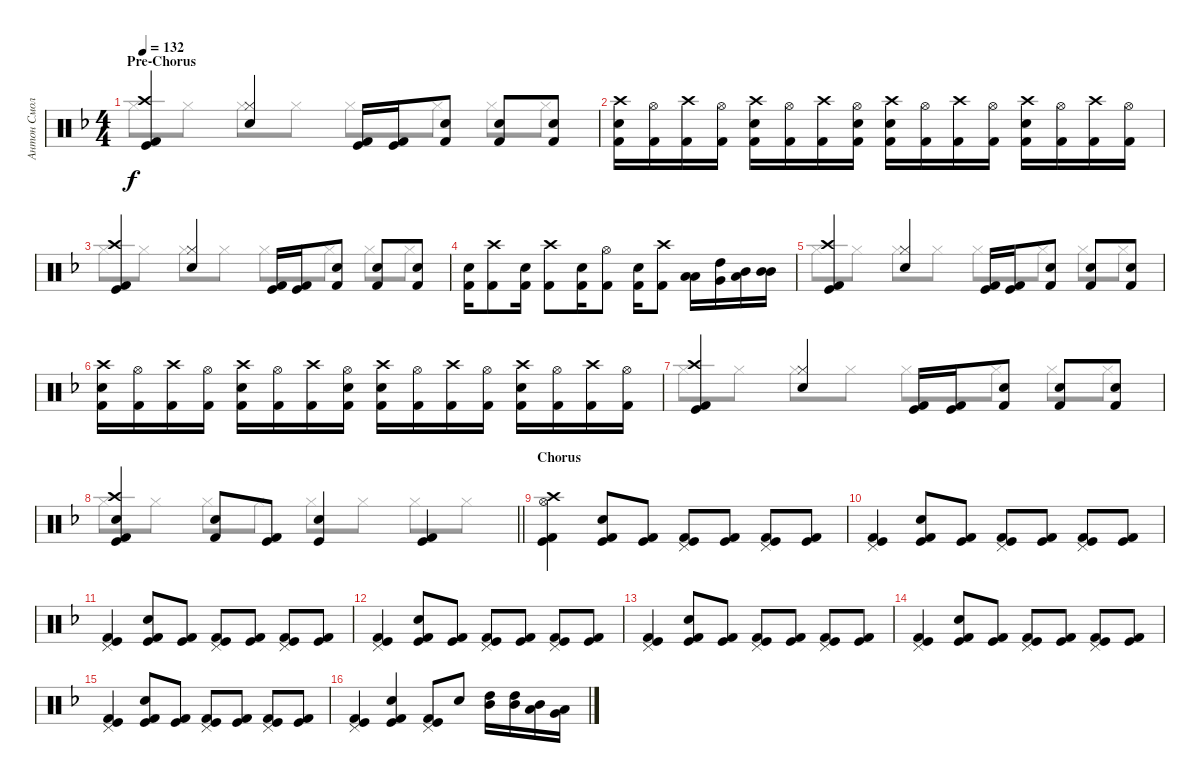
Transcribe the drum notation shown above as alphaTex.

\track ("Антон Смольянин" "Антон Смол") {instrument percussion}
\staff {score}
\articulation defaults
\voice
\ts (4 4)
\section ("" "Pre-Chorus")
\tempo 132
\clef neutral
\ks f
("Kick (hit) 2" "Kick (hit)" "Crash high (hit)").4{dy f} ("Hi-Hat (closed)" "Snare (hit) 2").4 ("Kick (hit) 2" "Kick (hit)").16 ("Kick (hit) 2" "Kick (hit)").16 ("Kick (hit) 2" "Snare (hit) 2").8 ("Kick (hit) 2" "Snare (hit) 2").8 ("Kick (hit) 2" "Snare (hit) 2").8 |
("Kick (hit) 2" "Snare (hit) 2" "Crash high (hit)").16 ("Kick (hit) 2" "Hi-Hat (open)").16 ("Kick (hit) 2" "Crash high (hit)").16 ("Kick (hit) 2" "Hi-Hat (open)").16 ("Kick (hit) 2" "Snare (hit) 2" "Crash high (hit)").16 ("Kick (hit) 2" "Hi-Hat (open)").16 ("Kick (hit) 2" "Crash high (hit)").16 ("Kick (hit) 2" "Snare (hit) 2" "Hi-Hat (open)").16 ("Kick (hit) 2" "Snare (hit) 2" "Crash high (hit)").16 ("Kick (hit) 2" "Hi-Hat (open)").16 ("Kick (hit) 2" "Crash high (hit)").16 ("Kick (hit) 2" "Hi-Hat (open)").16 ("Kick (hit) 2" "Snare (hit) 2" "Crash high (hit)").16 ("Kick (hit) 2" "Hi-Hat (open)").16 ("Kick (hit) 2" "Crash high (hit)").16 ("Kick (hit) 2" "Hi-Hat (open)").16 |
("Kick (hit) 2" "Kick (hit)" "Crash high (hit)").4 ("Hi-Hat (closed)" "Snare (hit) 2").4 ("Kick (hit) 2" "Kick (hit)").16 ("Kick (hit) 2" "Kick (hit)").16 ("Kick (hit) 2" "Snare (hit) 2").8 ("Kick (hit) 2" "Snare (hit) 2").8 ("Kick (hit) 2" "Snare (hit) 2").8 |
("Kick (hit) 2" "Snare (hit) 2").16 ("Kick (hit) 2" "Crash high (hit)").8 ("Kick (hit) 2" "Snare (hit) 2").16 ("Kick (hit) 2" "Crash high (hit)").8 ("Kick (hit) 2" "Snare (hit) 2").16 ("Kick (hit) 2" "Hi-Hat (open)").8 ("Kick (hit) 2" "Snare (hit) 2").16 ("Kick (hit) 2" "Crash high (hit)").8 ("Low Tom (hit)" "Low Floor Tom (hit)").16 ("High Tom (hit)" "Very Low Tom (hit)").16 ("Mid Tom (hit)" "Low Floor Tom (hit)").16 ("Mid Tom (hit)" "Mid Tom (hit)").16 |
("Kick (hit) 2" "Kick (hit)" "Crash high (hit)").4 ("Hi-Hat (closed)" "Snare (hit) 2").4 ("Kick (hit) 2" "Kick (hit)").16 ("Kick (hit) 2" "Kick (hit)").16 ("Kick (hit) 2" "Snare (hit) 2").8 ("Kick (hit) 2" "Snare (hit) 2").8 ("Kick (hit) 2" "Snare (hit) 2").8 |
("Kick (hit) 2" "Snare (hit) 2" "Crash high (hit)").16 ("Kick (hit) 2" "Hi-Hat (open)").16 ("Kick (hit) 2" "Crash high (hit)").16 ("Kick (hit) 2" "Hi-Hat (open)").16 ("Kick (hit) 2" "Snare (hit) 2" "Crash high (hit)").16 ("Kick (hit) 2" "Hi-Hat (open)").16 ("Kick (hit) 2" "Crash high (hit)").16 ("Kick (hit) 2" "Snare (hit) 2" "Hi-Hat (open)").16 ("Kick (hit) 2" "Snare (hit) 2" "Crash high (hit)").16 ("Kick (hit) 2" "Hi-Hat (open)").16 ("Kick (hit) 2" "Crash high (hit)").16 ("Kick (hit) 2" "Hi-Hat (open)").16 ("Kick (hit) 2" "Snare (hit) 2" "Crash high (hit)").16 ("Kick (hit) 2" "Hi-Hat (open)").16 ("Kick (hit) 2" "Crash high (hit)").16 ("Kick (hit) 2" "Hi-Hat (open)").16 |
("Kick (hit) 2" "Kick (hit)" "Crash high (hit)").4 ("Hi-Hat (closed)" "Snare (hit) 2").4 ("Kick (hit) 2" "Kick (hit)").16 ("Kick (hit) 2" "Kick (hit)").16 ("Kick (hit) 2" "Snare (hit) 2").8 ("Kick (hit) 2" "Snare (hit) 2").8 ("Kick (hit) 2" "Snare (hit) 2").8 |
\barLineRight lightlight
("Kick (hit) 2" "Kick (hit)" "Snare (hit) 2" "Crash high (hit)").4 ("Kick (hit) 2" "Snare (hit) 2").8 ("Kick (hit) 2" "Kick (hit)").8 ("Snare (hit) 2" "Kick (hit)").4 ("Kick (hit) 2" "Kick (hit)").4 |
\section ("" "Chorus")
("Kick (hit) 2" "Kick (hit)" "Crash high (hit)" "Hi-Hat (open)").4 ("Kick (hit) 2" "Kick (hit)" "Snare (hit) 2").8 ("Kick (hit) 2" "Kick (hit)").8 ("Kick (hit) 2" "Kick (hit)" "Pedal Hi-Hat (hit)").8 ("Kick (hit) 2" "Kick (hit)").8 ("Kick (hit) 2" "Kick (hit)" "Pedal Hi-Hat (hit)").8 ("Kick (hit) 2" "Kick (hit)").8 |
("Kick (hit) 2" "Kick (hit)" "Pedal Hi-Hat (hit)").4 ("Kick (hit) 2" "Kick (hit)" "Snare (hit) 2").8 ("Kick (hit) 2" "Kick (hit)").8 ("Kick (hit) 2" "Kick (hit)" "Pedal Hi-Hat (hit)").8 ("Kick (hit) 2" "Kick (hit)").8 ("Kick (hit) 2" "Kick (hit)" "Pedal Hi-Hat (hit)").8 ("Kick (hit) 2" "Kick (hit)").8 |
("Kick (hit) 2" "Kick (hit)" "Pedal Hi-Hat (hit)").4 ("Kick (hit) 2" "Kick (hit)" "Snare (hit) 2").8 ("Kick (hit) 2" "Kick (hit)").8 ("Kick (hit) 2" "Kick (hit)" "Pedal Hi-Hat (hit)").8 ("Kick (hit) 2" "Kick (hit)").8 ("Kick (hit) 2" "Kick (hit)" "Pedal Hi-Hat (hit)").8 ("Kick (hit) 2" "Kick (hit)").8 |
("Kick (hit) 2" "Kick (hit)" "Pedal Hi-Hat (hit)").4 ("Kick (hit) 2" "Kick (hit)" "Snare (hit) 2").8 ("Kick (hit) 2" "Kick (hit)").8 ("Kick (hit) 2" "Kick (hit)" "Pedal Hi-Hat (hit)").8 ("Kick (hit) 2" "Kick (hit)").8 ("Kick (hit) 2" "Kick (hit)" "Pedal Hi-Hat (hit)").8 ("Kick (hit) 2" "Kick (hit)").8 |
("Kick (hit) 2" "Kick (hit)" "Pedal Hi-Hat (hit)").4 ("Kick (hit) 2" "Kick (hit)" "Snare (hit) 2").8 ("Kick (hit) 2" "Kick (hit)").8 ("Kick (hit) 2" "Kick (hit)" "Pedal Hi-Hat (hit)").8 ("Kick (hit) 2" "Kick (hit)").8 ("Kick (hit) 2" "Kick (hit)" "Pedal Hi-Hat (hit)").8 ("Kick (hit) 2" "Kick (hit)").8 |
("Kick (hit) 2" "Kick (hit)" "Pedal Hi-Hat (hit)").4 ("Kick (hit) 2" "Kick (hit)" "Snare (hit) 2").8 ("Kick (hit) 2" "Kick (hit)").8 ("Kick (hit) 2" "Kick (hit)" "Pedal Hi-Hat (hit)").8 ("Kick (hit) 2" "Kick (hit)").8 ("Kick (hit) 2" "Kick (hit)" "Pedal Hi-Hat (hit)").8 ("Kick (hit) 2" "Kick (hit)").8 |
("Kick (hit) 2" "Kick (hit)" "Pedal Hi-Hat (hit)").4 ("Kick (hit) 2" "Kick (hit)" "Snare (hit) 2").8 ("Kick (hit) 2" "Kick (hit)").8 ("Kick (hit) 2" "Kick (hit)" "Pedal Hi-Hat (hit)").8 ("Kick (hit) 2" "Kick (hit)").8 ("Kick (hit) 2" "Kick (hit)" "Pedal Hi-Hat (hit)").8 ("Kick (hit) 2" "Kick (hit)").8 |
("Kick (hit) 2" "Kick (hit)" "Pedal Hi-Hat (hit)").4 ("Kick (hit) 2" "Kick (hit)" "Snare (hit) 2").4 ("Kick (hit) 2" "Kick (hit)" "Pedal Hi-Hat (hit)").8 "Snare (hit) 2".8 ("High Tom (hit)" "Mid Tom (hit)").16 ("Mid Tom (hit)" "High Tom (hit)").16 ("Low Tom (hit)" "Mid Tom (hit)").16 ("Very Low Tom (hit)" "Low Tom (hit)").16
\voice
\clef neutral
\ottava regular
\simile none
\ks f "Hi-Hat (closed)".8{dy f} "Hi-Hat (closed)".8 "Hi-Hat (closed)".8 "Hi-Hat (closed)".8 "Hi-Hat (closed)".8 "Hi-Hat (closed)".8 "Hi-Hat (closed)".8 "Hi-Hat (closed)".8
|
|
"Hi-Hat (closed)".8 "Hi-Hat (closed)".8 "Hi-Hat (closed)".8 "Hi-Hat (closed)".8 "Hi-Hat (closed)".8 "Hi-Hat (closed)".8 "Hi-Hat (closed)".8 "Hi-Hat (closed)".8 |
|
"Hi-Hat (closed)".8 "Hi-Hat (closed)".8 "Hi-Hat (closed)".8 "Hi-Hat (closed)".8 "Hi-Hat (closed)".8 "Hi-Hat (closed)".8 "Hi-Hat (closed)".8 "Hi-Hat (closed)".8 |
|
"Hi-Hat (closed)".8 "Hi-Hat (closed)".8 "Hi-Hat (closed)".8 "Hi-Hat (closed)".8 "Hi-Hat (closed)".8 "Hi-Hat (closed)".8 "Hi-Hat (closed)".8 "Hi-Hat (closed)".8 |
\barLineRight lightlight "Hi-Hat (closed)".8 "Hi-Hat (closed)".8 "Hi-Hat (closed)".8 "Hi-Hat (closed)".8 "Hi-Hat (closed)".8 "Hi-Hat (closed)".8 "Hi-Hat (closed)".8 "Hi-Hat (closed)".8
|
|
|
|
|
|
|
|
